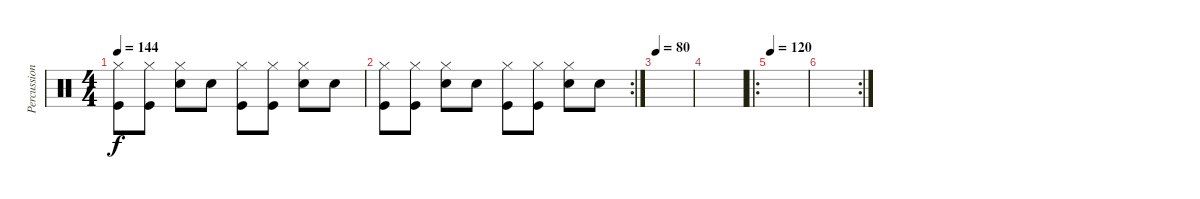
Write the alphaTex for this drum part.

\track ("Percussion" "Percussion") {instrument percussion}
\staff {score}
\articulation defaults
\ts (4 4)
\tempo 144
\clef neutral
\ks c
("Hi-Hat (closed)" "Kick (hit)").8{dy f} ("Hi-Hat (closed)" "Kick (hit)").8 ("Hi-Hat (closed)" "Snare (hit) 2").8 "Snare (hit) 2".8 ("Hi-Hat (closed)" "Kick (hit)").8 ("Hi-Hat (closed)" "Kick (hit)").8 ("Hi-Hat (closed)" "Snare (hit) 2").8 "Snare (hit) 2".8 |
\rc 2
("Hi-Hat (closed)" "Kick (hit)").8 ("Hi-Hat (closed)" "Kick (hit)").8 ("Hi-Hat (closed)" "Snare (hit) 2").8 "Snare (hit) 2".8 ("Hi-Hat (closed)" "Kick (hit)").8 ("Hi-Hat (closed)" "Kick (hit)").8 ("Hi-Hat (closed)" "Snare (hit) 2").8 "Snare (hit) 2".8 |
\tempo 80
|
|
\ro
\tempo 120
|
\rc 2
